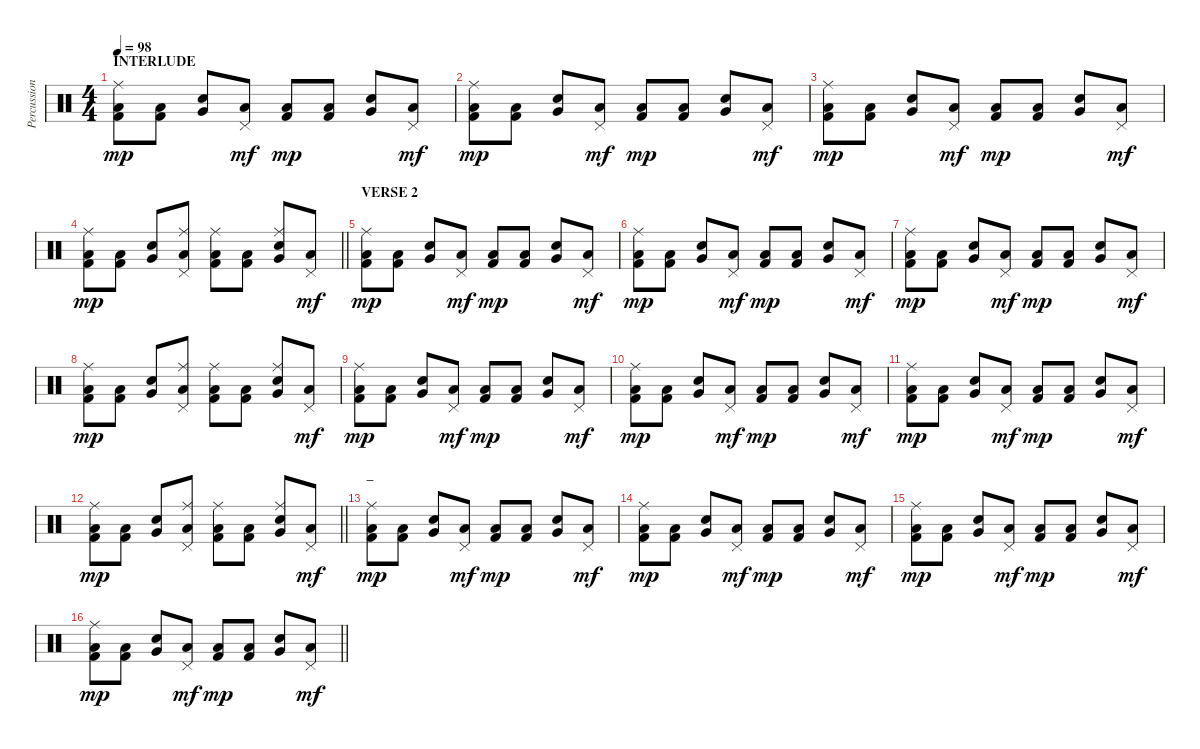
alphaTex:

\track ("Percussion" "Percussion") {instrument percussion}
\staff {score}
\articulation defaults
\ts (4 4)
\section ("" "INTERLUDE")
\tempo 98
\clef neutral
\ks c
("Kick (hit) 2" "Low Floor Tom (hit)" "Ride (middle)").8{dy mp} ("Kick (hit) 2" "Low Floor Tom (hit)").8 ("Snare (hit) 2" "Very Low Tom (hit)").8 ("Low Floor Tom (hit)" "Pedal Hi-Hat (hit)").8{dy mf} ("Kick (hit) 2" "Low Floor Tom (hit)").8{dy mp} ("Kick (hit) 2" "Low Floor Tom (hit)").8 ("Snare (hit) 2" "Very Low Tom (hit)").8 ("Low Floor Tom (hit)" "Pedal Hi-Hat (hit)").8{dy mf} |
("Kick (hit) 2" "Low Floor Tom (hit)" "Ride (middle)").8{dy mp} ("Kick (hit) 2" "Low Floor Tom (hit)").8 ("Snare (hit) 2" "Very Low Tom (hit)").8 ("Low Floor Tom (hit)" "Pedal Hi-Hat (hit)").8{dy mf} ("Kick (hit) 2" "Low Floor Tom (hit)").8{dy mp} ("Kick (hit) 2" "Low Floor Tom (hit)").8 ("Snare (hit) 2" "Very Low Tom (hit)").8 ("Low Floor Tom (hit)" "Pedal Hi-Hat (hit)").8{dy mf} |
("Kick (hit) 2" "Low Floor Tom (hit)" "Ride (middle)").8{dy mp} ("Kick (hit) 2" "Low Floor Tom (hit)").8 ("Snare (hit) 2" "Very Low Tom (hit)").8 ("Low Floor Tom (hit)" "Pedal Hi-Hat (hit)").8{dy mf} ("Kick (hit) 2" "Low Floor Tom (hit)").8{dy mp} ("Kick (hit) 2" "Low Floor Tom (hit)").8 ("Snare (hit) 2" "Very Low Tom (hit)").8 ("Low Floor Tom (hit)" "Pedal Hi-Hat (hit)").8{dy mf} |
\barLineRight lightlight
("Kick (hit) 2" "Low Floor Tom (hit)" "Ride (middle)").8{dy mp} ("Kick (hit) 2" "Low Floor Tom (hit)").8 ("Snare (hit) 2" "Very Low Tom (hit)").8 ("Low Floor Tom (hit)" "Pedal Hi-Hat (hit)" "Ride (middle)").8 ("Kick (hit) 2" "Low Floor Tom (hit)" "Ride (middle)").8 ("Kick (hit) 2" "Low Floor Tom (hit)").8 ("Snare (hit) 2" "Very Low Tom (hit)" "Ride (middle)").8 ("Low Floor Tom (hit)" "Pedal Hi-Hat (hit)").8{dy mf} |
\section ("" "VERSE 2")
("Kick (hit) 2" "Low Floor Tom (hit)" "Ride (middle)").8{dy mp} ("Kick (hit) 2" "Low Floor Tom (hit)").8 ("Snare (hit) 2" "Very Low Tom (hit)").8 ("Low Floor Tom (hit)" "Pedal Hi-Hat (hit)").8{dy mf} ("Kick (hit) 2" "Low Floor Tom (hit)").8{dy mp} ("Kick (hit) 2" "Low Floor Tom (hit)").8 ("Snare (hit) 2" "Very Low Tom (hit)").8 ("Low Floor Tom (hit)" "Pedal Hi-Hat (hit)").8{dy mf} |
("Kick (hit) 2" "Low Floor Tom (hit)" "Ride (middle)").8{dy mp} ("Kick (hit) 2" "Low Floor Tom (hit)").8 ("Snare (hit) 2" "Very Low Tom (hit)").8 ("Low Floor Tom (hit)" "Pedal Hi-Hat (hit)").8{dy mf} ("Kick (hit) 2" "Low Floor Tom (hit)").8{dy mp} ("Kick (hit) 2" "Low Floor Tom (hit)").8 ("Snare (hit) 2" "Very Low Tom (hit)").8 ("Low Floor Tom (hit)" "Pedal Hi-Hat (hit)").8{dy mf} |
("Kick (hit) 2" "Low Floor Tom (hit)" "Ride (middle)").8{dy mp} ("Kick (hit) 2" "Low Floor Tom (hit)").8 ("Snare (hit) 2" "Very Low Tom (hit)").8 ("Low Floor Tom (hit)" "Pedal Hi-Hat (hit)").8{dy mf} ("Kick (hit) 2" "Low Floor Tom (hit)").8{dy mp} ("Kick (hit) 2" "Low Floor Tom (hit)").8 ("Snare (hit) 2" "Very Low Tom (hit)").8 ("Low Floor Tom (hit)" "Pedal Hi-Hat (hit)").8{dy mf} |
("Kick (hit) 2" "Low Floor Tom (hit)" "Ride (middle)").8{dy mp} ("Kick (hit) 2" "Low Floor Tom (hit)").8 ("Snare (hit) 2" "Very Low Tom (hit)").8 ("Low Floor Tom (hit)" "Pedal Hi-Hat (hit)" "Ride (middle)").8 ("Kick (hit) 2" "Low Floor Tom (hit)" "Ride (middle)").8 ("Kick (hit) 2" "Low Floor Tom (hit)").8 ("Snare (hit) 2" "Very Low Tom (hit)" "Ride (middle)").8 ("Low Floor Tom (hit)" "Pedal Hi-Hat (hit)").8{dy mf} |
("Kick (hit) 2" "Low Floor Tom (hit)" "Ride (middle)").8{dy mp} ("Kick (hit) 2" "Low Floor Tom (hit)").8 ("Snare (hit) 2" "Very Low Tom (hit)").8 ("Low Floor Tom (hit)" "Pedal Hi-Hat (hit)").8{dy mf} ("Kick (hit) 2" "Low Floor Tom (hit)").8{dy mp} ("Kick (hit) 2" "Low Floor Tom (hit)").8 ("Snare (hit) 2" "Very Low Tom (hit)").8 ("Low Floor Tom (hit)" "Pedal Hi-Hat (hit)").8{dy mf} |
("Kick (hit) 2" "Low Floor Tom (hit)" "Ride (middle)").8{dy mp} ("Kick (hit) 2" "Low Floor Tom (hit)").8 ("Snare (hit) 2" "Very Low Tom (hit)").8 ("Low Floor Tom (hit)" "Pedal Hi-Hat (hit)").8{dy mf} ("Kick (hit) 2" "Low Floor Tom (hit)").8{dy mp} ("Kick (hit) 2" "Low Floor Tom (hit)").8 ("Snare (hit) 2" "Very Low Tom (hit)").8 ("Low Floor Tom (hit)" "Pedal Hi-Hat (hit)").8{dy mf} |
("Kick (hit) 2" "Low Floor Tom (hit)" "Ride (middle)").8{dy mp} ("Kick (hit) 2" "Low Floor Tom (hit)").8 ("Snare (hit) 2" "Very Low Tom (hit)").8 ("Low Floor Tom (hit)" "Pedal Hi-Hat (hit)").8{dy mf} ("Kick (hit) 2" "Low Floor Tom (hit)").8{dy mp} ("Kick (hit) 2" "Low Floor Tom (hit)").8 ("Snare (hit) 2" "Very Low Tom (hit)").8 ("Low Floor Tom (hit)" "Pedal Hi-Hat (hit)").8{dy mf} |
\barLineRight lightlight
("Kick (hit) 2" "Low Floor Tom (hit)" "Ride (middle)").8{dy mp} ("Kick (hit) 2" "Low Floor Tom (hit)").8 ("Snare (hit) 2" "Very Low Tom (hit)").8 ("Low Floor Tom (hit)" "Pedal Hi-Hat (hit)" "Ride (middle)").8 ("Kick (hit) 2" "Low Floor Tom (hit)" "Ride (middle)").8 ("Kick (hit) 2" "Low Floor Tom (hit)").8 ("Snare (hit) 2" "Very Low Tom (hit)" "Ride (middle)").8 ("Low Floor Tom (hit)" "Pedal Hi-Hat (hit)").8{dy mf} |
\section ("" "_")
("Kick (hit) 2" "Low Floor Tom (hit)" "Ride (middle)").8{dy mp} ("Kick (hit) 2" "Low Floor Tom (hit)").8 ("Snare (hit) 2" "Very Low Tom (hit)").8 ("Low Floor Tom (hit)" "Pedal Hi-Hat (hit)").8{dy mf} ("Kick (hit) 2" "Low Floor Tom (hit)").8{dy mp} ("Kick (hit) 2" "Low Floor Tom (hit)").8 ("Snare (hit) 2" "Very Low Tom (hit)").8 ("Low Floor Tom (hit)" "Pedal Hi-Hat (hit)").8{dy mf} |
("Kick (hit) 2" "Low Floor Tom (hit)" "Ride (middle)").8{dy mp} ("Kick (hit) 2" "Low Floor Tom (hit)").8 ("Snare (hit) 2" "Very Low Tom (hit)").8 ("Low Floor Tom (hit)" "Pedal Hi-Hat (hit)").8{dy mf} ("Kick (hit) 2" "Low Floor Tom (hit)").8{dy mp} ("Kick (hit) 2" "Low Floor Tom (hit)").8 ("Snare (hit) 2" "Very Low Tom (hit)").8 ("Low Floor Tom (hit)" "Pedal Hi-Hat (hit)").8{dy mf} |
("Kick (hit) 2" "Low Floor Tom (hit)" "Ride (middle)").8{dy mp} ("Kick (hit) 2" "Low Floor Tom (hit)").8 ("Snare (hit) 2" "Very Low Tom (hit)").8 ("Low Floor Tom (hit)" "Pedal Hi-Hat (hit)").8{dy mf} ("Kick (hit) 2" "Low Floor Tom (hit)").8{dy mp} ("Kick (hit) 2" "Low Floor Tom (hit)").8 ("Snare (hit) 2" "Very Low Tom (hit)").8 ("Low Floor Tom (hit)" "Pedal Hi-Hat (hit)").8{dy mf} |
\barLineRight lightlight
("Kick (hit) 2" "Low Floor Tom (hit)" "Ride (middle)").8{dy mp} ("Kick (hit) 2" "Low Floor Tom (hit)").8 ("Snare (hit) 2" "Very Low Tom (hit)").8 ("Low Floor Tom (hit)" "Pedal Hi-Hat (hit)").8{dy mf} ("Kick (hit) 2" "Low Floor Tom (hit)").8{dy mp} ("Kick (hit) 2" "Low Floor Tom (hit)").8 ("Snare (hit) 2" "Very Low Tom (hit)").8 ("Low Floor Tom (hit)" "Pedal Hi-Hat (hit)").8{dy mf}
